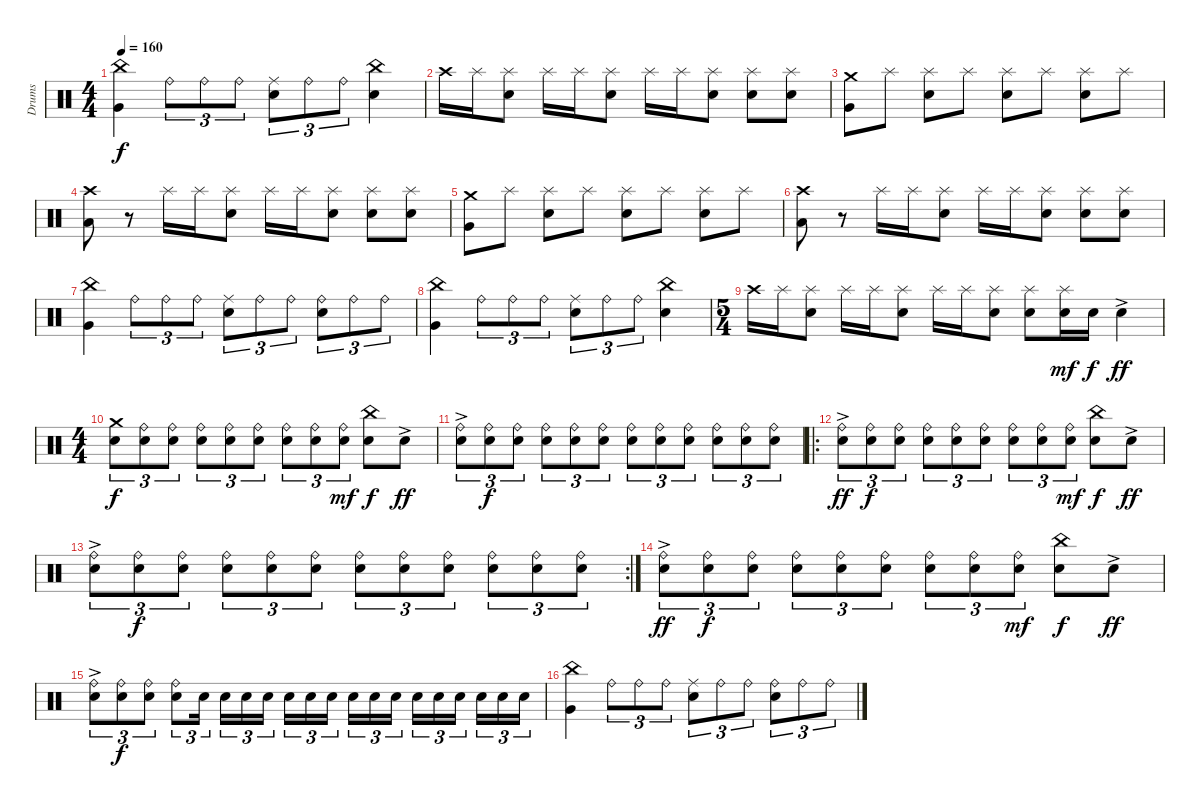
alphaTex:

\track ("Drums" "Drums") {instrument percussion}
\staff {score}
\articulation defaults
\ts (4 4)
\tempo 160
\clef neutral
\ks c
("China (hit)" "Very Low Tom (hit)").4{dy f} "Ride (bell)".8{tu (3 2)} "Ride (bell)".8{tu (3 2)} "Ride (bell)".8{tu (3 2)} ("Ride (middle)" "Electric Snare (hit)").8{tu (3 2)} "Ride (bell)".8{tu (3 2)} "Ride (bell)".8{tu (3 2)} ("China (hit)" "Electric Snare (hit)").4 |
"Crash high (hit)".16 "Splash (hit)".16 ("Splash (hit)" "Electric Snare (hit)").8 "Splash (hit)".16 "Splash (hit)".16 ("Splash (hit)" "Electric Snare (hit)").8 "Splash (hit)".16 "Splash (hit)".16 ("Splash (hit)" "Electric Snare (hit)").8 ("Splash (hit)" "Electric Snare (hit)").8 ("Splash (hit)" "Electric Snare (hit)").8 |
("Crash medium (hit)" "Very Low Tom (hit)").8 "Splash (hit)".8 ("Splash (hit)" "Electric Snare (hit)").8 "Splash (hit)".8 ("Splash (hit)" "Electric Snare (hit)").8 "Splash (hit)".8 ("Splash (hit)" "Electric Snare (hit)").8 "Splash (hit)".8 |
("Crash high (hit)" "Low Floor Tom (hit)").8 r.8 "Splash (hit)".16 "Splash (hit)".16 ("Splash (hit)" "Electric Snare (hit)").8 "Splash (hit)".16 "Splash (hit)".16 ("Splash (hit)" "Electric Snare (hit)").8 ("Splash (hit)" "Electric Snare (hit)").8 ("Splash (hit)" "Electric Snare (hit)").8 |
("Crash medium (hit)" "Very Low Tom (hit)").8 "Splash (hit)".8 ("Splash (hit)" "Electric Snare (hit)").8 "Splash (hit)".8 ("Splash (hit)" "Electric Snare (hit)").8 "Splash (hit)".8 ("Splash (hit)" "Electric Snare (hit)").8 "Splash (hit)".8 |
("Crash high (hit)" "Low Floor Tom (hit)").8 r.8 "Splash (hit)".16 "Splash (hit)".16 ("Splash (hit)" "Electric Snare (hit)").8 "Splash (hit)".16 "Splash (hit)".16 ("Splash (hit)" "Electric Snare (hit)").8 ("Splash (hit)" "Electric Snare (hit)").8 ("Splash (hit)" "Electric Snare (hit)").8 |
("China (hit)" "Very Low Tom (hit)").4 "Ride (bell)".8{tu (3 2)} "Ride (bell)".8{tu (3 2)} "Ride (bell)".8{tu (3 2)} ("Ride (middle)" "Electric Snare (hit)").8{tu (3 2)} "Ride (bell)".8{tu (3 2)} "Ride (bell)".8{tu (3 2)} ("Ride (bell)" "Electric Snare (hit)").8{tu (3 2)} "Ride (bell)".8{tu (3 2)} "Ride (bell)".8{tu (3 2)} |
("China (hit)" "Very Low Tom (hit)").4 "Ride (bell)".8{tu (3 2)} "Ride (bell)".8{tu (3 2)} "Ride (bell)".8{tu (3 2)} ("Ride (middle)" "Electric Snare (hit)").8{tu (3 2)} "Ride (bell)".8{tu (3 2)} "Ride (bell)".8{tu (3 2)} ("China (hit)" "Electric Snare (hit)").4 |
\ts (5 4)
"Crash high (hit)".16 "Splash (hit)".16 ("Splash (hit)" "Electric Snare (hit)").8 "Splash (hit)".16 "Splash (hit)".16 ("Splash (hit)" "Electric Snare (hit)").8 "Splash (hit)".16 "Splash (hit)".16 ("Splash (hit)" "Electric Snare (hit)").8 ("Splash (hit)" "Electric Snare (hit)").8 ("Splash (hit)" "Electric Snare (hit)").16{dy mf} "Electric Snare (hit)".16{dy f} "Electric Snare (hit)"{ac}.4{dy ff} |
\ts (4 4)
("Crash medium (hit)" "Electric Snare (hit)").8{tu (3 2) dy f} ("Ride (bell)" "Electric Snare (hit)").8{tu (3 2)} ("Ride (bell)" "Electric Snare (hit)").8{tu (3 2)} ("Ride (bell)" "Electric Snare (hit)").8{tu (3 2)} ("Ride (bell)" "Electric Snare (hit)").8{tu (3 2)} ("Ride (bell)" "Electric Snare (hit)").8{tu (3 2)} ("Ride (bell)" "Electric Snare (hit)").8{tu (3 2)} ("Ride (bell)" "Electric Snare (hit)").8{tu (3 2)} ("Ride (bell)" "Electric Snare (hit)").8{tu (3 2) dy mf} ("China (hit)" "Electric Snare (hit)").8{dy f} "Electric Snare (hit)"{ac}.8{dy ff} |
("Ride (bell)"{ac} "Electric Snare (hit)").8{tu (3 2)} ("Ride (bell)" "Electric Snare (hit)").8{tu (3 2) dy f} ("Ride (bell)" "Electric Snare (hit)").8{tu (3 2)} ("Ride (bell)" "Electric Snare (hit)").8{tu (3 2)} ("Ride (bell)" "Electric Snare (hit)").8{tu (3 2)} ("Ride (bell)" "Electric Snare (hit)").8{tu (3 2)} ("Ride (bell)" "Electric Snare (hit)").8{tu (3 2)} ("Ride (bell)" "Electric Snare (hit)").8{tu (3 2)} ("Ride (bell)" "Electric Snare (hit)").8{tu (3 2)} ("Ride (bell)" "Electric Snare (hit)").8{tu (3 2)} ("Ride (bell)" "Electric Snare (hit)").8{tu (3 2)} ("Ride (bell)" "Electric Snare (hit)").8{tu (3 2)} |
\ro
("Ride (bell)"{ac} "Electric Snare (hit)").8{tu (3 2) dy ff} ("Ride (bell)" "Electric Snare (hit)").8{tu (3 2) dy f} ("Ride (bell)" "Electric Snare (hit)").8{tu (3 2)} ("Ride (bell)" "Electric Snare (hit)").8{tu (3 2)} ("Ride (bell)" "Electric Snare (hit)").8{tu (3 2)} ("Ride (bell)" "Electric Snare (hit)").8{tu (3 2)} ("Ride (bell)" "Electric Snare (hit)").8{tu (3 2)} ("Ride (bell)" "Electric Snare (hit)").8{tu (3 2)} ("Ride (bell)" "Electric Snare (hit)").8{tu (3 2) dy mf} ("China (hit)" "Electric Snare (hit)").8{dy f} "Electric Snare (hit)"{ac}.8{dy ff} |
\rc 2
("Ride (bell)"{ac} "Electric Snare (hit)").8{tu (3 2)} ("Ride (bell)" "Electric Snare (hit)").8{tu (3 2) dy f} ("Ride (bell)" "Electric Snare (hit)").8{tu (3 2)} ("Ride (bell)" "Electric Snare (hit)").8{tu (3 2)} ("Ride (bell)" "Electric Snare (hit)").8{tu (3 2)} ("Ride (bell)" "Electric Snare (hit)").8{tu (3 2)} ("Ride (bell)" "Electric Snare (hit)").8{tu (3 2)} ("Ride (bell)" "Electric Snare (hit)").8{tu (3 2)} ("Ride (bell)" "Electric Snare (hit)").8{tu (3 2)} ("Ride (bell)" "Electric Snare (hit)").8{tu (3 2)} ("Ride (bell)" "Electric Snare (hit)").8{tu (3 2)} ("Ride (bell)" "Electric Snare (hit)").8{tu (3 2)} |
("Ride (bell)"{ac} "Electric Snare (hit)").8{tu (3 2) dy ff} ("Ride (bell)" "Electric Snare (hit)").8{tu (3 2) dy f} ("Ride (bell)" "Electric Snare (hit)").8{tu (3 2)} ("Ride (bell)" "Electric Snare (hit)").8{tu (3 2)} ("Ride (bell)" "Electric Snare (hit)").8{tu (3 2)} ("Ride (bell)" "Electric Snare (hit)").8{tu (3 2)} ("Ride (bell)" "Electric Snare (hit)").8{tu (3 2)} ("Ride (bell)" "Electric Snare (hit)").8{tu (3 2)} ("Ride (bell)" "Electric Snare (hit)").8{tu (3 2) dy mf} ("China (hit)" "Electric Snare (hit)").8{dy f} "Electric Snare (hit)"{ac}.8{dy ff} |
("Ride (bell)"{ac} "Electric Snare (hit)").8{tu (3 2)} ("Ride (bell)" "Electric Snare (hit)").8{tu (3 2) dy f} ("Ride (bell)" "Electric Snare (hit)").8{tu (3 2)} ("Ride (bell)" "Electric Snare (hit)").8{tu (3 2)} "Electric Snare (hit)".16{tu (3 2) beam splitsecondary} "Electric Snare (hit)".16{tu (3 2)} "Electric Snare (hit)".16{tu (3 2)} "Electric Snare (hit)".16{tu (3 2)} "Electric Snare (hit)".16{tu (3 2)} "Electric Snare (hit)".16{tu (3 2)} "Electric Snare (hit)".16{tu (3 2) beam splitsecondary} "Electric Snare (hit)".16{tu (3 2)} "Electric Snare (hit)".16{tu (3 2)} "Electric Snare (hit)".16{tu (3 2)} "Electric Snare (hit)".16{tu (3 2)} "Electric Snare (hit)".16{tu (3 2)} "Electric Snare (hit)".16{tu (3 2) beam splitsecondary} "Electric Snare (hit)".16{tu (3 2)} "Electric Snare (hit)".16{tu (3 2)} "Electric Snare (hit)".16{tu (3 2)} |
("China (hit)" "Very Low Tom (hit)").4 "Ride (bell)".8{tu (3 2)} "Ride (bell)".8{tu (3 2)} "Ride (bell)".8{tu (3 2)} ("Ride (middle)" "Electric Snare (hit)").8{tu (3 2)} "Ride (bell)".8{tu (3 2)} "Ride (bell)".8{tu (3 2)} ("Ride (bell)" "Electric Snare (hit)").8{tu (3 2)} "Ride (bell)".8{tu (3 2)} "Ride (bell)".8{tu (3 2)}
